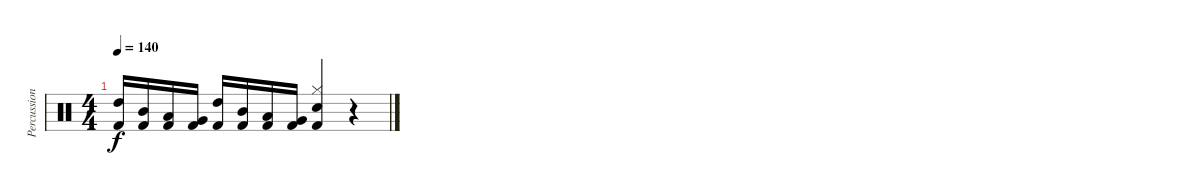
\track ("Percussion" "Percussion") {instrument percussion}
\staff {score}
\articulation defaults
\ts (4 4)
\tempo 140
\clef neutral
\ks c
("High Tom (hit)" "Kick (hit) 2").16{dy f} ("Mid Tom (hit)" "Kick (hit) 2").16 ("Low Tom (hit)" "Kick (hit) 2").16 ("Very Low Tom (hit)" "Kick (hit) 2").16 ("High Tom (hit)" "Kick (hit) 2").16 ("Mid Tom (hit)" "Kick (hit) 2").16 ("Low Tom (hit)" "Kick (hit) 2").16 ("Very Low Tom (hit)" "Kick (hit) 2").16 ("Hi-Hat (closed)" "Snare (hit) 2" "Kick (hit) 2").4 r.4
